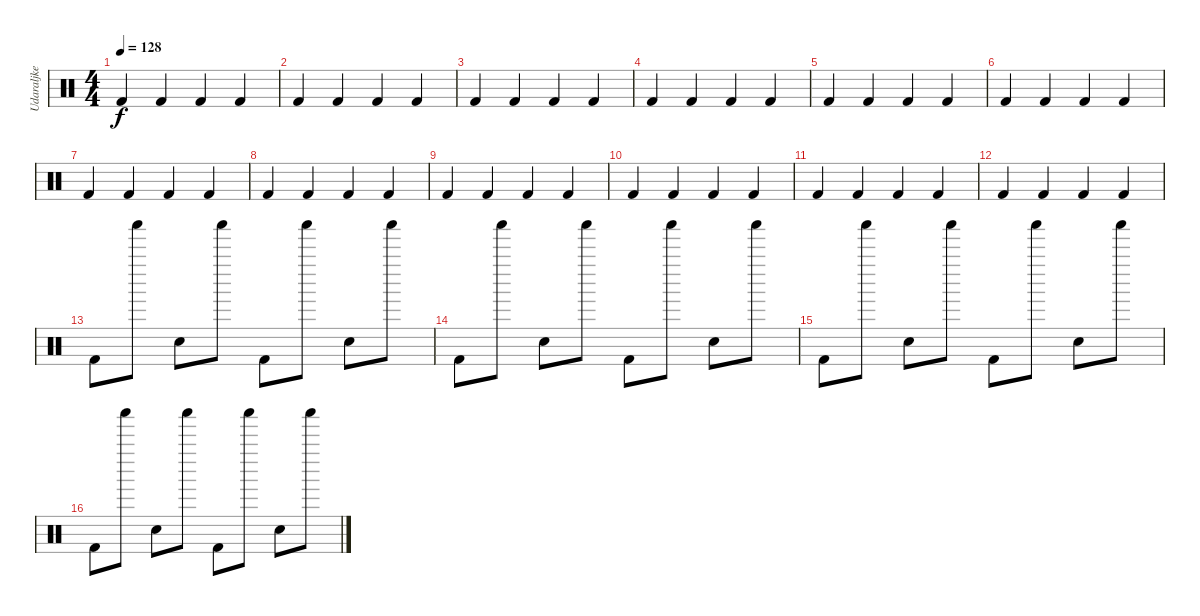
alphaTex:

\track ("Udaraljke" "Udaraljke") {instrument percussion}
\staff {score}
\articulation defaults
\ts (4 4)
\tempo 128
\clef neutral
\ks c "Kick (hit) 2".4{dy f} "Kick (hit) 2".4 "Kick (hit) 2".4 "Kick (hit) 2".4
|
"Kick (hit) 2".4 "Kick (hit) 2".4 "Kick (hit) 2".4 "Kick (hit) 2".4 |
"Kick (hit) 2".4 "Kick (hit) 2".4 "Kick (hit) 2".4 "Kick (hit) 2".4 |
"Kick (hit) 2".4 "Kick (hit) 2".4 "Kick (hit) 2".4 "Kick (hit) 2".4 |
"Kick (hit) 2".4 "Kick (hit) 2".4 "Kick (hit) 2".4 "Kick (hit) 2".4 |
"Kick (hit) 2".4 "Kick (hit) 2".4 "Kick (hit) 2".4 "Kick (hit) 2".4 |
"Kick (hit) 2".4 "Kick (hit) 2".4 "Kick (hit) 2".4 "Kick (hit) 2".4 |
"Kick (hit) 2".4 "Kick (hit) 2".4 "Kick (hit) 2".4 "Kick (hit) 2".4 |
"Kick (hit) 2".4 "Kick (hit) 2".4 "Kick (hit) 2".4 "Kick (hit) 2".4 |
"Kick (hit) 2".4 "Kick (hit) 2".4 "Kick (hit) 2".4 "Kick (hit) 2".4 |
"Kick (hit) 2".4 "Kick (hit) 2".4 "Kick (hit) 2".4 "Kick (hit) 2".4 |
"Kick (hit) 2".4 "Kick (hit) 2".4 "Kick (hit) 2".4 "Kick (hit) 2".4 |
"Kick (hit) 2".8 "Shaker (hit)".8 "Hand Clap (hit)".8 "Shaker (hit)".8 "Kick (hit) 2".8 "Shaker (hit)".8 "Hand Clap (hit)".8 "Shaker (hit)".8 |
"Kick (hit) 2".8 "Shaker (hit)".8 "Hand Clap (hit)".8 "Shaker (hit)".8 "Kick (hit) 2".8 "Shaker (hit)".8 "Hand Clap (hit)".8 "Shaker (hit)".8 |
"Kick (hit) 2".8 "Shaker (hit)".8 "Hand Clap (hit)".8 "Shaker (hit)".8 "Kick (hit) 2".8 "Shaker (hit)".8 "Hand Clap (hit)".8 "Shaker (hit)".8 |
"Kick (hit) 2".8 "Shaker (hit)".8 "Hand Clap (hit)".8 "Shaker (hit)".8 "Kick (hit) 2".8 "Shaker (hit)".8 "Hand Clap (hit)".8 "Shaker (hit)".8
